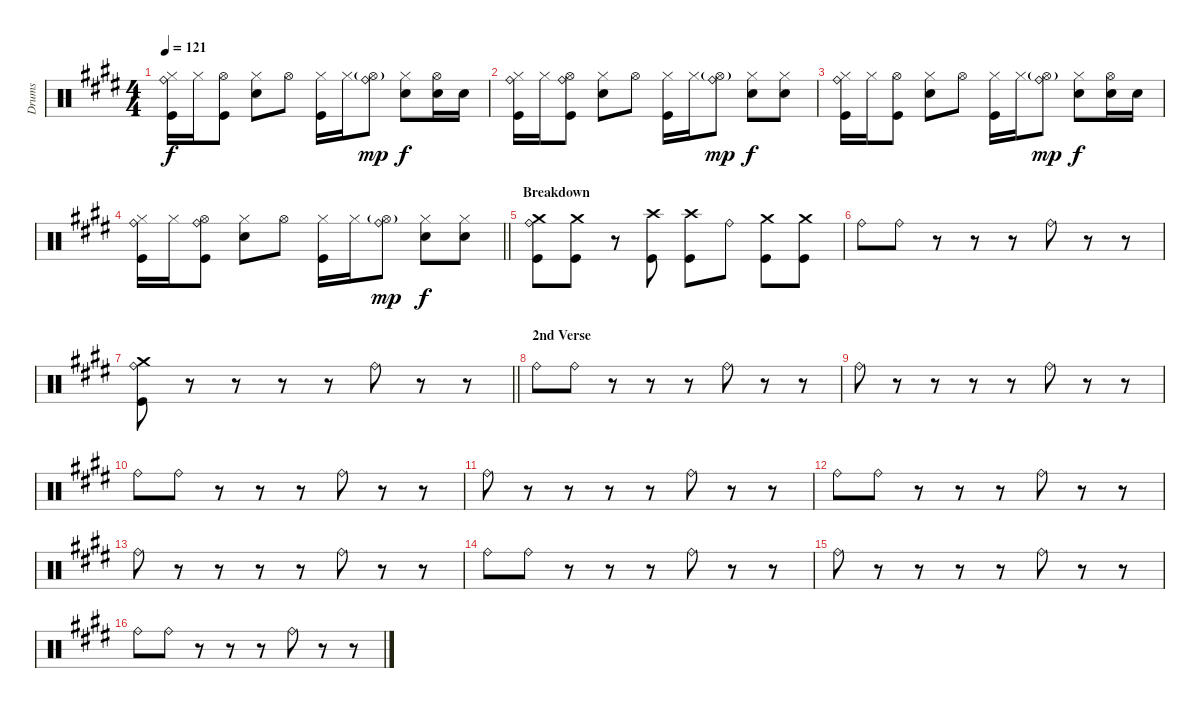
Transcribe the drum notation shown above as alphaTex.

\track ("Drums" "Drums") {instrument percussion}
\staff {score}
\articulation defaults
\ts (4 4)
\tempo 121
\clef neutral
\ks c#minor
("Ride (bell)" "Hi-Hat (closed)" "Kick (hit)").16{dy f} "Hi-Hat (closed)".16 ("Hi-Hat (open)" "Kick (hit)").8 ("Hi-Hat (closed)" "Electric Snare (hit)").8 "Hi-Hat (open)".8 ("Hi-Hat (closed)" "Kick (hit)").16 "Hi-Hat (closed)".16 ("Ride (bell)" "Hi-Hat (open)"{g}).8{dy mp} ("Hi-Hat (closed)" "Electric Snare (hit)").8{dy f} ("Hi-Hat (open)" "Electric Snare (hit)").16 "Electric Snare (hit)".16 |
("Ride (bell)" "Hi-Hat (closed)" "Kick (hit)").16 "Hi-Hat (closed)".16 ("Ride (bell)" "Hi-Hat (open)" "Kick (hit)").8 ("Hi-Hat (closed)" "Electric Snare (hit)").8 "Hi-Hat (open)".8 ("Hi-Hat (closed)" "Kick (hit)").16 "Hi-Hat (closed)".16 ("Ride (bell)" "Hi-Hat (open)"{g}).8{dy mp} ("Hi-Hat (closed)" "Electric Snare (hit)").8{dy f} ("Hi-Hat (closed)" "Electric Snare (hit)").8 |
("Ride (bell)" "Hi-Hat (closed)" "Kick (hit)").16 "Hi-Hat (closed)".16 ("Hi-Hat (open)" "Kick (hit)").8 ("Hi-Hat (closed)" "Electric Snare (hit)").8 "Hi-Hat (open)".8 ("Hi-Hat (closed)" "Kick (hit)").16 "Hi-Hat (closed)".16 ("Ride (bell)" "Hi-Hat (open)"{g}).8{dy mp} ("Hi-Hat (closed)" "Electric Snare (hit)").8{dy f} ("Hi-Hat (open)" "Electric Snare (hit)").16 "Electric Snare (hit)".16 |
\barLineRight lightlight
("Ride (bell)" "Hi-Hat (closed)" "Kick (hit)").16 "Hi-Hat (closed)".16 ("Ride (bell)" "Hi-Hat (open)" "Kick (hit)").8 ("Hi-Hat (closed)" "Electric Snare (hit)").8 "Hi-Hat (open)".8 ("Hi-Hat (closed)" "Kick (hit)").16 "Hi-Hat (closed)".16 ("Ride (bell)" "Hi-Hat (open)"{g}).8{dy mp} ("Hi-Hat (closed)" "Electric Snare (hit)").8{dy f} ("Hi-Hat (closed)" "Electric Snare (hit)").8 |
\section ("" "Breakdown")
("Ride (bell)" "Crash medium (hit)" "Kick (hit)").8 ("Crash medium (hit)" "Kick (hit)").8 r.8 ("Crash high (hit)" "Kick (hit)").8 ("Crash high (hit)" "Kick (hit)").8 "Ride (bell)".8 ("Crash medium (hit)" "Kick (hit)").8 ("Crash medium (hit)" "Kick (hit)").8 |
"Ride (bell)".8 "Ride (bell)".8 r.8 r.8 r.8 "Ride (bell)".8 r.8 r.8 |
\barLineRight lightlight
("Ride (bell)" "Crash medium (hit)" "Kick (hit)").8 r.8 r.8 r.8 r.8 "Ride (bell)".8 r.8 r.8 |
\section ("" "2nd Verse")
"Ride (bell)".8 "Ride (bell)".8 r.8 r.8 r.8 "Ride (bell)".8 r.8 r.8 |
"Ride (bell)".8 r.8 r.8 r.8 r.8 "Ride (bell)".8 r.8 r.8 |
"Ride (bell)".8 "Ride (bell)".8 r.8 r.8 r.8 "Ride (bell)".8 r.8 r.8 |
"Ride (bell)".8 r.8 r.8 r.8 r.8 "Ride (bell)".8 r.8 r.8 |
"Ride (bell)".8 "Ride (bell)".8 r.8 r.8 r.8 "Ride (bell)".8 r.8 r.8 |
"Ride (bell)".8 r.8 r.8 r.8 r.8 "Ride (bell)".8 r.8 r.8 |
"Ride (bell)".8 "Ride (bell)".8 r.8 r.8 r.8 "Ride (bell)".8 r.8 r.8 |
"Ride (bell)".8 r.8 r.8 r.8 r.8 "Ride (bell)".8 r.8 r.8 |
"Ride (bell)".8 "Ride (bell)".8 r.8 r.8 r.8 "Ride (bell)".8 r.8 r.8
